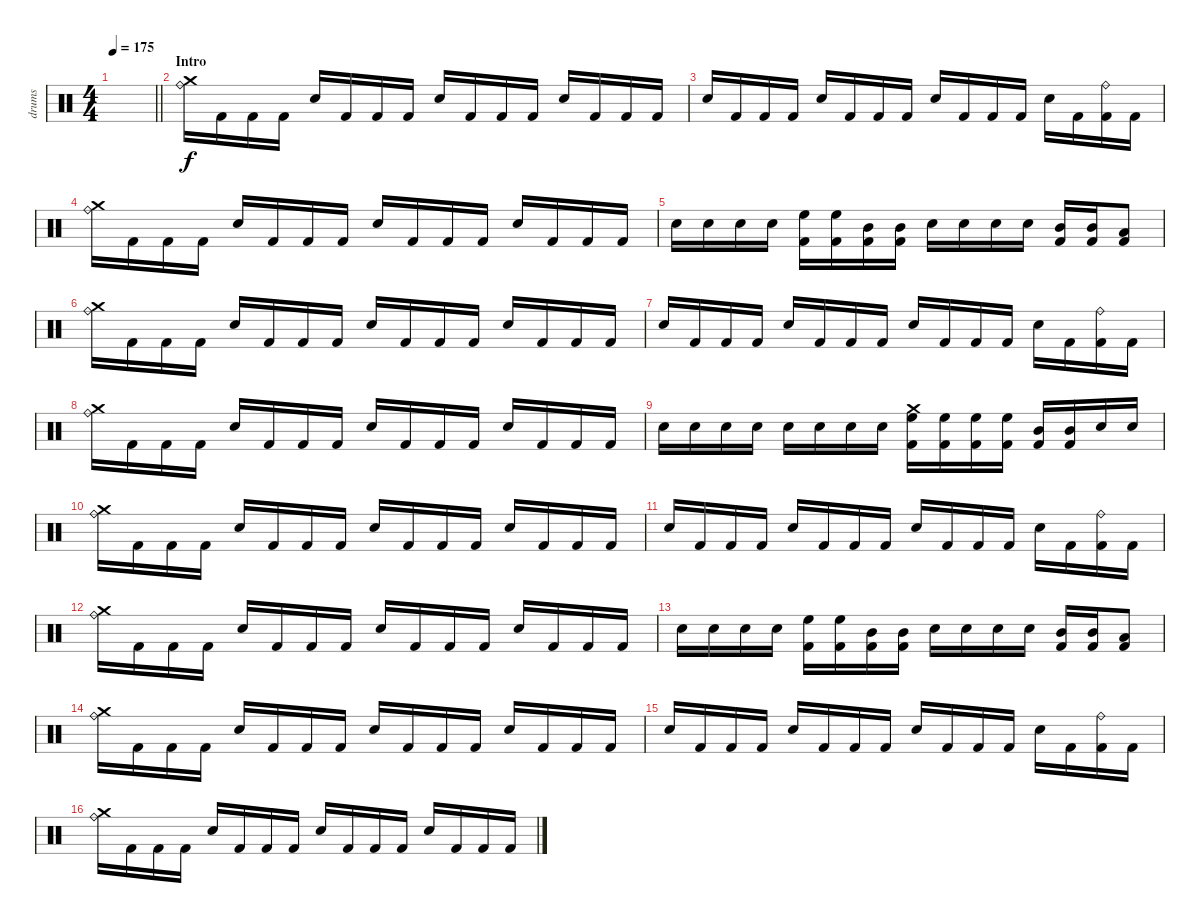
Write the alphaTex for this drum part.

\track ("drums" "drums") {instrument percussion}
\staff {score}
\articulation defaults
\ts (4 4)
\tempo 175
\clef neutral
\barLineRight lightlight
\ks c
|
\section ("" "Intro")
("Crash medium (hit)" "Ride (bell)").16 "Kick (hit) 2".16 "Kick (hit) 2".16 "Kick (hit) 2".16 "Snare (hit) 2".16 "Kick (hit) 2".16 "Kick (hit) 2".16 "Kick (hit) 2".16 "Snare (hit) 2".16 "Kick (hit) 2".16 "Kick (hit) 2".16 "Kick (hit) 2".16 "Snare (hit) 2".16 "Kick (hit) 2".16 "Kick (hit) 2".16 "Kick (hit) 2".16 |
"Snare (hit) 2".16 "Kick (hit) 2".16 "Kick (hit) 2".16 "Kick (hit) 2".16 "Snare (hit) 2".16 "Kick (hit) 2".16 "Kick (hit) 2".16 "Kick (hit) 2".16 "Snare (hit) 2".16 "Kick (hit) 2".16 "Kick (hit) 2".16 "Kick (hit) 2".16 "Snare (hit) 2".16 "Kick (hit) 2".16 ("Ride (bell)" "Kick (hit) 2").16 "Kick (hit) 2".16 |
("Crash medium (hit)" "Ride (bell)").16 "Kick (hit) 2".16 "Kick (hit) 2".16 "Kick (hit) 2".16 "Snare (hit) 2".16 "Kick (hit) 2".16 "Kick (hit) 2".16 "Kick (hit) 2".16 "Snare (hit) 2".16 "Kick (hit) 2".16 "Kick (hit) 2".16 "Kick (hit) 2".16 "Snare (hit) 2".16 "Kick (hit) 2".16 "Kick (hit) 2".16 "Kick (hit) 2".16 |
"Snare (hit) 2".16 "Snare (hit) 2".16 "Snare (hit) 2".16 "Snare (hit) 2".16 ("High Floor Tom (hit)" "Kick (hit) 2").16 ("High Floor Tom (hit)" "Kick (hit) 2").16 ("Mid Tom (hit)" "Kick (hit) 2").16 ("Mid Tom (hit)" "Kick (hit) 2").16 "Snare (hit) 2".16 "Snare (hit) 2".16 "Snare (hit) 2".16 "Snare (hit) 2".16 ("Mid Tom (hit)" "Kick (hit) 2").16 ("Mid Tom (hit)" "Kick (hit) 2").16 ("Low Tom (hit)" "Kick (hit) 2").8 |
("Crash medium (hit)" "Ride (bell)").16 "Kick (hit) 2".16 "Kick (hit) 2".16 "Kick (hit) 2".16 "Snare (hit) 2".16 "Kick (hit) 2".16 "Kick (hit) 2".16 "Kick (hit) 2".16 "Snare (hit) 2".16 "Kick (hit) 2".16 "Kick (hit) 2".16 "Kick (hit) 2".16 "Snare (hit) 2".16 "Kick (hit) 2".16 "Kick (hit) 2".16 "Kick (hit) 2".16 |
"Snare (hit) 2".16 "Kick (hit) 2".16 "Kick (hit) 2".16 "Kick (hit) 2".16 "Snare (hit) 2".16 "Kick (hit) 2".16 "Kick (hit) 2".16 "Kick (hit) 2".16 "Snare (hit) 2".16 "Kick (hit) 2".16 "Kick (hit) 2".16 "Kick (hit) 2".16 "Snare (hit) 2".16 "Kick (hit) 2".16 ("Ride (bell)" "Kick (hit) 2").16 "Kick (hit) 2".16 |
("Crash medium (hit)" "Ride (bell)").16 "Kick (hit) 2".16 "Kick (hit) 2".16 "Kick (hit) 2".16 "Snare (hit) 2".16 "Kick (hit) 2".16 "Kick (hit) 2".16 "Kick (hit) 2".16 "Snare (hit) 2".16 "Kick (hit) 2".16 "Kick (hit) 2".16 "Kick (hit) 2".16 "Snare (hit) 2".16 "Kick (hit) 2".16 "Kick (hit) 2".16 "Kick (hit) 2".16 |
"Snare (hit) 2".16 "Snare (hit) 2".16 "Snare (hit) 2".16 "Snare (hit) 2".16 "Snare (hit) 2".16 "Snare (hit) 2".16 "Snare (hit) 2".16 "Snare (hit) 2".16 ("Crash medium (hit)" "High Floor Tom (hit)" "Kick (hit) 2").16 ("High Floor Tom (hit)" "Kick (hit) 2").16 ("High Floor Tom (hit)" "Kick (hit) 2").16 ("High Floor Tom (hit)" "Kick (hit) 2").16 ("Mid Tom (hit)" "Kick (hit) 2").16 ("Mid Tom (hit)" "Kick (hit) 2").16 "Snare (hit) 2".16 "Snare (hit) 2".16 |
("Crash medium (hit)" "Ride (bell)").16 "Kick (hit) 2".16 "Kick (hit) 2".16 "Kick (hit) 2".16 "Snare (hit) 2".16 "Kick (hit) 2".16 "Kick (hit) 2".16 "Kick (hit) 2".16 "Snare (hit) 2".16 "Kick (hit) 2".16 "Kick (hit) 2".16 "Kick (hit) 2".16 "Snare (hit) 2".16 "Kick (hit) 2".16 "Kick (hit) 2".16 "Kick (hit) 2".16 |
"Snare (hit) 2".16 "Kick (hit) 2".16 "Kick (hit) 2".16 "Kick (hit) 2".16 "Snare (hit) 2".16 "Kick (hit) 2".16 "Kick (hit) 2".16 "Kick (hit) 2".16 "Snare (hit) 2".16 "Kick (hit) 2".16 "Kick (hit) 2".16 "Kick (hit) 2".16 "Snare (hit) 2".16 "Kick (hit) 2".16 ("Ride (bell)" "Kick (hit) 2").16 "Kick (hit) 2".16 |
("Crash medium (hit)" "Ride (bell)").16 "Kick (hit) 2".16 "Kick (hit) 2".16 "Kick (hit) 2".16 "Snare (hit) 2".16 "Kick (hit) 2".16 "Kick (hit) 2".16 "Kick (hit) 2".16 "Snare (hit) 2".16 "Kick (hit) 2".16 "Kick (hit) 2".16 "Kick (hit) 2".16 "Snare (hit) 2".16 "Kick (hit) 2".16 "Kick (hit) 2".16 "Kick (hit) 2".16 |
"Snare (hit) 2".16 "Snare (hit) 2".16 "Snare (hit) 2".16 "Snare (hit) 2".16 ("High Floor Tom (hit)" "Kick (hit) 2").16 ("High Floor Tom (hit)" "Kick (hit) 2").16 ("Mid Tom (hit)" "Kick (hit) 2").16 ("Mid Tom (hit)" "Kick (hit) 2").16 "Snare (hit) 2".16 "Snare (hit) 2".16 "Snare (hit) 2".16 "Snare (hit) 2".16 ("Mid Tom (hit)" "Kick (hit) 2").16 ("Mid Tom (hit)" "Kick (hit) 2").16 ("Low Tom (hit)" "Kick (hit) 2").8 |
("Crash medium (hit)" "Ride (bell)").16 "Kick (hit) 2".16 "Kick (hit) 2".16 "Kick (hit) 2".16 "Snare (hit) 2".16 "Kick (hit) 2".16 "Kick (hit) 2".16 "Kick (hit) 2".16 "Snare (hit) 2".16 "Kick (hit) 2".16 "Kick (hit) 2".16 "Kick (hit) 2".16 "Snare (hit) 2".16 "Kick (hit) 2".16 "Kick (hit) 2".16 "Kick (hit) 2".16 |
"Snare (hit) 2".16 "Kick (hit) 2".16 "Kick (hit) 2".16 "Kick (hit) 2".16 "Snare (hit) 2".16 "Kick (hit) 2".16 "Kick (hit) 2".16 "Kick (hit) 2".16 "Snare (hit) 2".16 "Kick (hit) 2".16 "Kick (hit) 2".16 "Kick (hit) 2".16 "Snare (hit) 2".16 "Kick (hit) 2".16 ("Ride (bell)" "Kick (hit) 2").16 "Kick (hit) 2".16 |
("Crash medium (hit)" "Ride (bell)").16 "Kick (hit) 2".16 "Kick (hit) 2".16 "Kick (hit) 2".16 "Snare (hit) 2".16 "Kick (hit) 2".16 "Kick (hit) 2".16 "Kick (hit) 2".16 "Snare (hit) 2".16 "Kick (hit) 2".16 "Kick (hit) 2".16 "Kick (hit) 2".16 "Snare (hit) 2".16 "Kick (hit) 2".16 "Kick (hit) 2".16 "Kick (hit) 2".16
